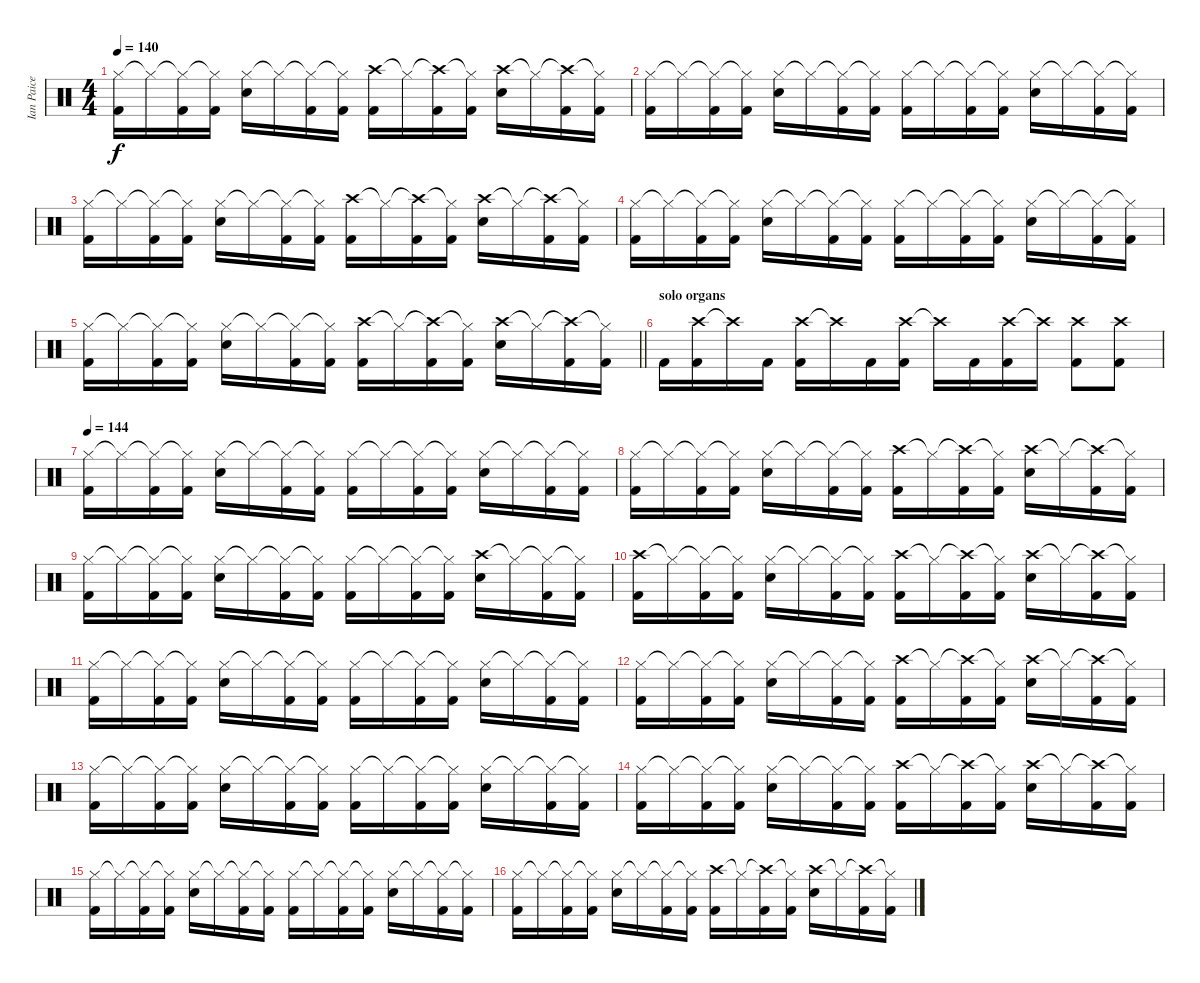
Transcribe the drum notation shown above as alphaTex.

\track ("Ian Paice" "Ian Paice") {instrument percussion}
\staff {score}
\articulation defaults
\ts (4 4)
\tempo 140
\clef neutral
\ks c
("Hi-Hat (closed)" "Kick (hit) 2").16{dy f} "Hi-Hat (closed)"{t}.16 ("Hi-Hat (closed)"{t} "Kick (hit) 2").16 ("Hi-Hat (closed)"{t} "Kick (hit) 2").16 ("Hi-Hat (closed)" "Snare (hit) 2").16 "Hi-Hat (closed)"{t}.16 ("Hi-Hat (closed)"{t} "Kick (hit) 2").16 ("Hi-Hat (closed)"{t} "Kick (hit) 2").16 ("Crash high (hit)" "Kick (hit) 2").16 "Hi-Hat (closed)"{t}.16 ("Crash high (hit)"{t} "Kick (hit) 2").16 ("Hi-Hat (closed)"{t} "Kick (hit) 2").16 ("Crash high (hit)" "Snare (hit) 2").16 "Hi-Hat (closed)"{t}.16 ("Crash high (hit)"{t} "Kick (hit) 2").16 ("Hi-Hat (closed)"{t} "Kick (hit) 2").16 |
("Hi-Hat (closed)" "Kick (hit) 2").16 "Hi-Hat (closed)"{t}.16 ("Hi-Hat (closed)"{t} "Kick (hit) 2").16 ("Hi-Hat (closed)"{t} "Kick (hit) 2").16 ("Hi-Hat (closed)" "Snare (hit) 2").16 "Hi-Hat (closed)"{t}.16 ("Hi-Hat (closed)"{t} "Kick (hit) 2").16 ("Hi-Hat (closed)"{t} "Kick (hit) 2").16 ("Hi-Hat (closed)" "Kick (hit) 2").16 "Hi-Hat (closed)"{t}.16 ("Hi-Hat (closed)"{t} "Kick (hit) 2").16 ("Hi-Hat (closed)"{t} "Kick (hit) 2").16 ("Hi-Hat (closed)" "Snare (hit) 2").16 "Hi-Hat (closed)"{t}.16 ("Hi-Hat (closed)"{t} "Kick (hit) 2").16 ("Hi-Hat (closed)"{t} "Kick (hit) 2").16 |
("Hi-Hat (closed)" "Kick (hit) 2").16 "Hi-Hat (closed)"{t}.16 ("Hi-Hat (closed)"{t} "Kick (hit) 2").16 ("Hi-Hat (closed)"{t} "Kick (hit) 2").16 ("Hi-Hat (closed)" "Snare (hit) 2").16 "Hi-Hat (closed)"{t}.16 ("Hi-Hat (closed)"{t} "Kick (hit) 2").16 ("Hi-Hat (closed)"{t} "Kick (hit) 2").16 ("Crash high (hit)" "Kick (hit) 2").16 "Hi-Hat (closed)"{t}.16 ("Crash high (hit)"{t} "Kick (hit) 2").16 ("Hi-Hat (closed)"{t} "Kick (hit) 2").16 ("Crash high (hit)" "Snare (hit) 2").16 "Hi-Hat (closed)"{t}.16 ("Crash high (hit)"{t} "Kick (hit) 2").16 ("Hi-Hat (closed)"{t} "Kick (hit) 2").16 |
("Hi-Hat (closed)" "Kick (hit) 2").16 "Hi-Hat (closed)"{t}.16 ("Hi-Hat (closed)"{t} "Kick (hit) 2").16 ("Hi-Hat (closed)"{t} "Kick (hit) 2").16 ("Hi-Hat (closed)" "Snare (hit) 2").16 "Hi-Hat (closed)"{t}.16 ("Hi-Hat (closed)"{t} "Kick (hit) 2").16 ("Hi-Hat (closed)"{t} "Kick (hit) 2").16 ("Hi-Hat (closed)" "Kick (hit) 2").16 "Hi-Hat (closed)"{t}.16 ("Hi-Hat (closed)"{t} "Kick (hit) 2").16 ("Hi-Hat (closed)"{t} "Kick (hit) 2").16 ("Hi-Hat (closed)" "Snare (hit) 2").16 "Hi-Hat (closed)"{t}.16 ("Hi-Hat (closed)"{t} "Kick (hit) 2").16 ("Hi-Hat (closed)"{t} "Kick (hit) 2").16 |
\barLineRight lightlight
("Hi-Hat (closed)" "Kick (hit) 2").16 "Hi-Hat (closed)"{t}.16 ("Hi-Hat (closed)"{t} "Kick (hit) 2").16 ("Hi-Hat (closed)"{t} "Kick (hit) 2").16 ("Hi-Hat (closed)" "Snare (hit) 2").16 "Hi-Hat (closed)"{t}.16 ("Hi-Hat (closed)"{t} "Kick (hit) 2").16 ("Hi-Hat (closed)"{t} "Kick (hit) 2").16 ("Crash high (hit)" "Kick (hit) 2").16 "Hi-Hat (closed)"{t}.16 ("Crash high (hit)"{t} "Kick (hit) 2").16 ("Hi-Hat (closed)"{t} "Kick (hit) 2").16 ("Crash high (hit)" "Snare (hit) 2").16 "Hi-Hat (closed)"{t}.16 ("Crash high (hit)"{t} "Kick (hit) 2").16 ("Hi-Hat (closed)"{t} "Kick (hit) 2").16 |
\section ("" "solo organs")
"Kick (hit) 2".16 ("Crash high (hit)" "Kick (hit) 2").16 "Crash high (hit)"{t}.16 "Kick (hit) 2".16 ("Crash high (hit)" "Kick (hit) 2").16 "Crash high (hit)"{t}.16 "Kick (hit) 2".16 ("Crash high (hit)" "Kick (hit) 2").16 "Crash high (hit)"{t}.16 "Kick (hit) 2".16 ("Crash high (hit)" "Kick (hit) 2").16 "Crash high (hit)"{t}.16 ("Crash high (hit)" "Kick (hit) 2").8 ("Crash high (hit)" "Kick (hit) 2").8 |
\tempo 144
("Hi-Hat (closed)" "Kick (hit) 2").16 "Hi-Hat (closed)"{t}.16 ("Hi-Hat (closed)"{t} "Kick (hit) 2").16 ("Hi-Hat (closed)"{t} "Kick (hit) 2").16 ("Hi-Hat (closed)" "Snare (hit) 2").16 "Hi-Hat (closed)"{t}.16 ("Hi-Hat (closed)"{t} "Kick (hit) 2").16 ("Hi-Hat (closed)"{t} "Kick (hit) 2").16 ("Hi-Hat (closed)" "Kick (hit) 2").16 "Hi-Hat (closed)"{t}.16 ("Hi-Hat (closed)"{t} "Kick (hit) 2").16 ("Hi-Hat (closed)"{t} "Kick (hit) 2").16 ("Hi-Hat (closed)" "Snare (hit) 2").16 "Hi-Hat (closed)"{t}.16 ("Hi-Hat (closed)"{t} "Kick (hit) 2").16 ("Hi-Hat (closed)"{t} "Kick (hit) 2").16 |
("Hi-Hat (closed)" "Kick (hit) 2").16 "Hi-Hat (closed)"{t}.16 ("Hi-Hat (closed)"{t} "Kick (hit) 2").16 ("Hi-Hat (closed)"{t} "Kick (hit) 2").16 ("Hi-Hat (closed)" "Snare (hit) 2").16 "Hi-Hat (closed)"{t}.16 ("Hi-Hat (closed)"{t} "Kick (hit) 2").16 ("Hi-Hat (closed)"{t} "Kick (hit) 2").16 ("Crash high (hit)" "Kick (hit) 2").16 "Hi-Hat (closed)"{t}.16 ("Crash high (hit)"{t} "Kick (hit) 2").16 ("Hi-Hat (closed)"{t} "Kick (hit) 2").16 ("Crash high (hit)" "Snare (hit) 2").16 "Hi-Hat (closed)"{t}.16 ("Crash high (hit)"{t} "Kick (hit) 2").16 ("Hi-Hat (closed)"{t} "Kick (hit) 2").16 |
("Hi-Hat (closed)" "Kick (hit) 2").16 "Hi-Hat (closed)"{t}.16 ("Hi-Hat (closed)"{t} "Kick (hit) 2").16 ("Hi-Hat (closed)"{t} "Kick (hit) 2").16 ("Hi-Hat (closed)" "Snare (hit) 2").16 "Hi-Hat (closed)"{t}.16 ("Hi-Hat (closed)"{t} "Kick (hit) 2").16 ("Hi-Hat (closed)"{t} "Kick (hit) 2").16 ("Hi-Hat (closed)" "Kick (hit) 2").16 "Hi-Hat (closed)"{t}.16 ("Hi-Hat (closed)"{t} "Kick (hit) 2").16 ("Hi-Hat (closed)"{t} "Kick (hit) 2").16 ("Crash high (hit)" "Snare (hit) 2").16 "Hi-Hat (closed)"{t}.16 ("Hi-Hat (closed)"{t} "Kick (hit) 2").16 ("Hi-Hat (closed)"{t} "Kick (hit) 2").16 |
("Crash high (hit)" "Kick (hit) 2").16 "Hi-Hat (closed)"{t}.16 ("Hi-Hat (closed)"{t} "Kick (hit) 2").16 ("Hi-Hat (closed)"{t} "Kick (hit) 2").16 ("Hi-Hat (closed)" "Snare (hit) 2").16 "Hi-Hat (closed)"{t}.16 ("Hi-Hat (closed)"{t} "Kick (hit) 2").16 ("Hi-Hat (closed)"{t} "Kick (hit) 2").16 ("Crash high (hit)" "Kick (hit) 2").16 "Hi-Hat (closed)"{t}.16 ("Crash high (hit)"{t} "Kick (hit) 2").16 ("Hi-Hat (closed)"{t} "Kick (hit) 2").16 ("Crash high (hit)" "Snare (hit) 2").16 "Hi-Hat (closed)"{t}.16 ("Crash high (hit)"{t} "Kick (hit) 2").16 ("Hi-Hat (closed)"{t} "Kick (hit) 2").16 |
("Hi-Hat (closed)" "Kick (hit) 2").16 "Hi-Hat (closed)"{t}.16 ("Hi-Hat (closed)"{t} "Kick (hit) 2").16 ("Hi-Hat (closed)"{t} "Kick (hit) 2").16 ("Hi-Hat (closed)" "Snare (hit) 2").16 "Hi-Hat (closed)"{t}.16 ("Hi-Hat (closed)"{t} "Kick (hit) 2").16 ("Hi-Hat (closed)"{t} "Kick (hit) 2").16 ("Hi-Hat (closed)" "Kick (hit) 2").16 "Hi-Hat (closed)"{t}.16 ("Hi-Hat (closed)"{t} "Kick (hit) 2").16 ("Hi-Hat (closed)"{t} "Kick (hit) 2").16 ("Hi-Hat (closed)" "Snare (hit) 2").16 "Hi-Hat (closed)"{t}.16 ("Hi-Hat (closed)"{t} "Kick (hit) 2").16 ("Hi-Hat (closed)"{t} "Kick (hit) 2").16 |
("Hi-Hat (closed)" "Kick (hit) 2").16 "Hi-Hat (closed)"{t}.16 ("Hi-Hat (closed)"{t} "Kick (hit) 2").16 ("Hi-Hat (closed)"{t} "Kick (hit) 2").16 ("Hi-Hat (closed)" "Snare (hit) 2").16 "Hi-Hat (closed)"{t}.16 ("Hi-Hat (closed)"{t} "Kick (hit) 2").16 ("Hi-Hat (closed)"{t} "Kick (hit) 2").16 ("Crash high (hit)" "Kick (hit) 2").16 "Hi-Hat (closed)"{t}.16 ("Crash high (hit)"{t} "Kick (hit) 2").16 ("Hi-Hat (closed)"{t} "Kick (hit) 2").16 ("Crash high (hit)" "Snare (hit) 2").16 "Hi-Hat (closed)"{t}.16 ("Crash high (hit)"{t} "Kick (hit) 2").16 ("Hi-Hat (closed)"{t} "Kick (hit) 2").16 |
("Hi-Hat (closed)" "Kick (hit) 2").16 "Hi-Hat (closed)"{t}.16 ("Hi-Hat (closed)"{t} "Kick (hit) 2").16 ("Hi-Hat (closed)"{t} "Kick (hit) 2").16 ("Hi-Hat (closed)" "Snare (hit) 2").16 "Hi-Hat (closed)"{t}.16 ("Hi-Hat (closed)"{t} "Kick (hit) 2").16 ("Hi-Hat (closed)"{t} "Kick (hit) 2").16 ("Hi-Hat (closed)" "Kick (hit) 2").16 "Hi-Hat (closed)"{t}.16 ("Hi-Hat (closed)"{t} "Kick (hit) 2").16 ("Hi-Hat (closed)"{t} "Kick (hit) 2").16 ("Hi-Hat (closed)" "Snare (hit) 2").16 "Hi-Hat (closed)"{t}.16 ("Hi-Hat (closed)"{t} "Kick (hit) 2").16 ("Hi-Hat (closed)"{t} "Kick (hit) 2").16 |
("Hi-Hat (closed)" "Kick (hit) 2").16 "Hi-Hat (closed)"{t}.16 ("Hi-Hat (closed)"{t} "Kick (hit) 2").16 ("Hi-Hat (closed)"{t} "Kick (hit) 2").16 ("Hi-Hat (closed)" "Snare (hit) 2").16 "Hi-Hat (closed)"{t}.16 ("Hi-Hat (closed)"{t} "Kick (hit) 2").16 ("Hi-Hat (closed)"{t} "Kick (hit) 2").16 ("Crash high (hit)" "Kick (hit) 2").16 "Hi-Hat (closed)"{t}.16 ("Crash high (hit)"{t} "Kick (hit) 2").16 ("Hi-Hat (closed)"{t} "Kick (hit) 2").16 ("Crash high (hit)" "Snare (hit) 2").16 "Hi-Hat (closed)"{t}.16 ("Crash high (hit)"{t} "Kick (hit) 2").16 ("Hi-Hat (closed)"{t} "Kick (hit) 2").16 |
("Hi-Hat (closed)" "Kick (hit) 2").16 "Hi-Hat (closed)"{t}.16 ("Hi-Hat (closed)"{t} "Kick (hit) 2").16 ("Hi-Hat (closed)"{t} "Kick (hit) 2").16 ("Hi-Hat (closed)" "Snare (hit) 2").16 "Hi-Hat (closed)"{t}.16 ("Hi-Hat (closed)"{t} "Kick (hit) 2").16 ("Hi-Hat (closed)"{t} "Kick (hit) 2").16 ("Hi-Hat (closed)" "Kick (hit) 2").16 "Hi-Hat (closed)"{t}.16 ("Hi-Hat (closed)"{t} "Kick (hit) 2").16 ("Hi-Hat (closed)"{t} "Kick (hit) 2").16 ("Hi-Hat (closed)" "Snare (hit) 2").16 "Hi-Hat (closed)"{t}.16 ("Hi-Hat (closed)"{t} "Kick (hit) 2").16 ("Hi-Hat (closed)"{t} "Kick (hit) 2").16 |
("Hi-Hat (closed)" "Kick (hit) 2").16 "Hi-Hat (closed)"{t}.16 ("Hi-Hat (closed)"{t} "Kick (hit) 2").16 ("Hi-Hat (closed)"{t} "Kick (hit) 2").16 ("Hi-Hat (closed)" "Snare (hit) 2").16 "Hi-Hat (closed)"{t}.16 ("Hi-Hat (closed)"{t} "Kick (hit) 2").16 ("Hi-Hat (closed)"{t} "Kick (hit) 2").16 ("Crash high (hit)" "Kick (hit) 2").16 "Hi-Hat (closed)"{t}.16 ("Crash high (hit)"{t} "Kick (hit) 2").16 ("Hi-Hat (closed)"{t} "Kick (hit) 2").16 ("Crash high (hit)" "Snare (hit) 2").16 "Hi-Hat (closed)"{t}.16 ("Crash high (hit)"{t} "Kick (hit) 2").16 ("Hi-Hat (closed)"{t} "Kick (hit) 2").16
